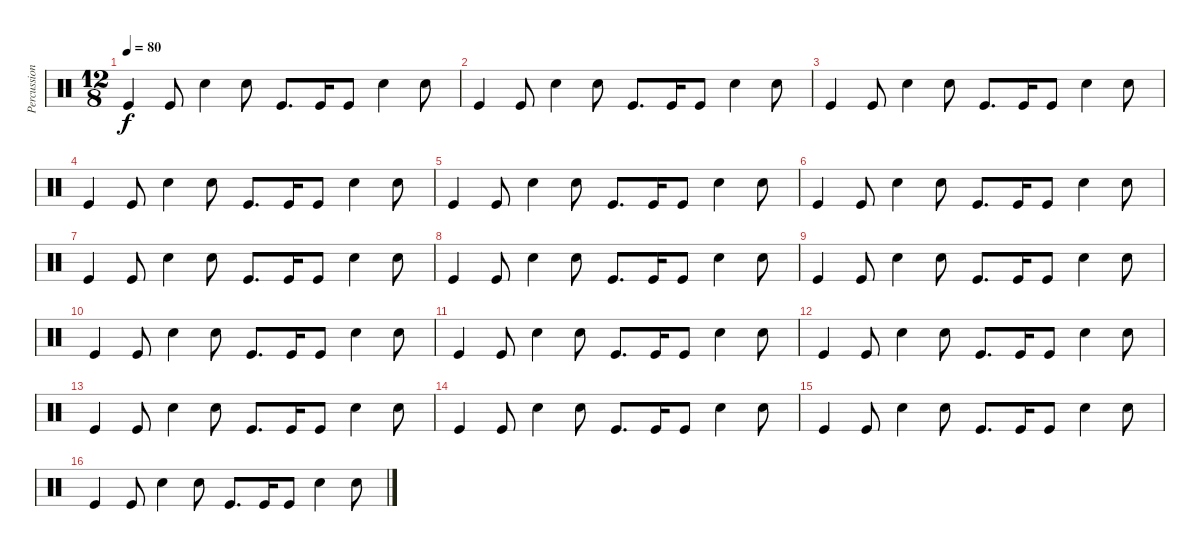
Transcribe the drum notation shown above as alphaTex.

\track ("Percussion" "Percussion") {instrument percussion}
\staff {score}
\articulation defaults
\ts (12 8)
\tempo 80
\clef neutral
\ks c "Kick (hit)".4{dy f} "Kick (hit)".8 "Snare (hit) 2".4 "Snare (hit) 2".8 "Kick (hit)".8{d} "Kick (hit)".16 "Kick (hit)".8 "Snare (hit) 2".4 "Snare (hit) 2".8
|
"Kick (hit)".4 "Kick (hit)".8 "Snare (hit) 2".4 "Snare (hit) 2".8 "Kick (hit)".8{d} "Kick (hit)".16 "Kick (hit)".8 "Snare (hit) 2".4 "Snare (hit) 2".8 |
"Kick (hit)".4 "Kick (hit)".8 "Snare (hit) 2".4 "Snare (hit) 2".8 "Kick (hit)".8{d} "Kick (hit)".16 "Kick (hit)".8 "Snare (hit) 2".4 "Snare (hit) 2".8 |
"Kick (hit)".4 "Kick (hit)".8 "Snare (hit) 2".4 "Snare (hit) 2".8 "Kick (hit)".8{d} "Kick (hit)".16 "Kick (hit)".8 "Snare (hit) 2".4 "Snare (hit) 2".8 |
"Kick (hit)".4 "Kick (hit)".8 "Snare (hit) 2".4 "Snare (hit) 2".8 "Kick (hit)".8{d} "Kick (hit)".16 "Kick (hit)".8 "Snare (hit) 2".4 "Snare (hit) 2".8 |
"Kick (hit)".4 "Kick (hit)".8 "Snare (hit) 2".4 "Snare (hit) 2".8 "Kick (hit)".8{d} "Kick (hit)".16 "Kick (hit)".8 "Snare (hit) 2".4 "Snare (hit) 2".8 |
"Kick (hit)".4 "Kick (hit)".8 "Snare (hit) 2".4 "Snare (hit) 2".8 "Kick (hit)".8{d} "Kick (hit)".16 "Kick (hit)".8 "Snare (hit) 2".4 "Snare (hit) 2".8 |
"Kick (hit)".4 "Kick (hit)".8 "Snare (hit) 2".4 "Snare (hit) 2".8 "Kick (hit)".8{d} "Kick (hit)".16 "Kick (hit)".8 "Snare (hit) 2".4 "Snare (hit) 2".8 |
"Kick (hit)".4 "Kick (hit)".8 "Snare (hit) 2".4 "Snare (hit) 2".8 "Kick (hit)".8{d} "Kick (hit)".16 "Kick (hit)".8 "Snare (hit) 2".4 "Snare (hit) 2".8 |
"Kick (hit)".4 "Kick (hit)".8 "Snare (hit) 2".4 "Snare (hit) 2".8 "Kick (hit)".8{d} "Kick (hit)".16 "Kick (hit)".8 "Snare (hit) 2".4 "Snare (hit) 2".8 |
"Kick (hit)".4 "Kick (hit)".8 "Snare (hit) 2".4 "Snare (hit) 2".8 "Kick (hit)".8{d} "Kick (hit)".16 "Kick (hit)".8 "Snare (hit) 2".4 "Snare (hit) 2".8 |
"Kick (hit)".4 "Kick (hit)".8 "Snare (hit) 2".4 "Snare (hit) 2".8 "Kick (hit)".8{d} "Kick (hit)".16 "Kick (hit)".8 "Snare (hit) 2".4 "Snare (hit) 2".8 |
"Kick (hit)".4 "Kick (hit)".8 "Snare (hit) 2".4 "Snare (hit) 2".8 "Kick (hit)".8{d} "Kick (hit)".16 "Kick (hit)".8 "Snare (hit) 2".4 "Snare (hit) 2".8 |
"Kick (hit)".4 "Kick (hit)".8 "Snare (hit) 2".4 "Snare (hit) 2".8 "Kick (hit)".8{d} "Kick (hit)".16 "Kick (hit)".8 "Snare (hit) 2".4 "Snare (hit) 2".8 |
"Kick (hit)".4 "Kick (hit)".8 "Snare (hit) 2".4 "Snare (hit) 2".8 "Kick (hit)".8{d} "Kick (hit)".16 "Kick (hit)".8 "Snare (hit) 2".4 "Snare (hit) 2".8 |
"Kick (hit)".4 "Kick (hit)".8 "Snare (hit) 2".4 "Snare (hit) 2".8 "Kick (hit)".8{d} "Kick (hit)".16 "Kick (hit)".8 "Snare (hit) 2".4 "Snare (hit) 2".8
